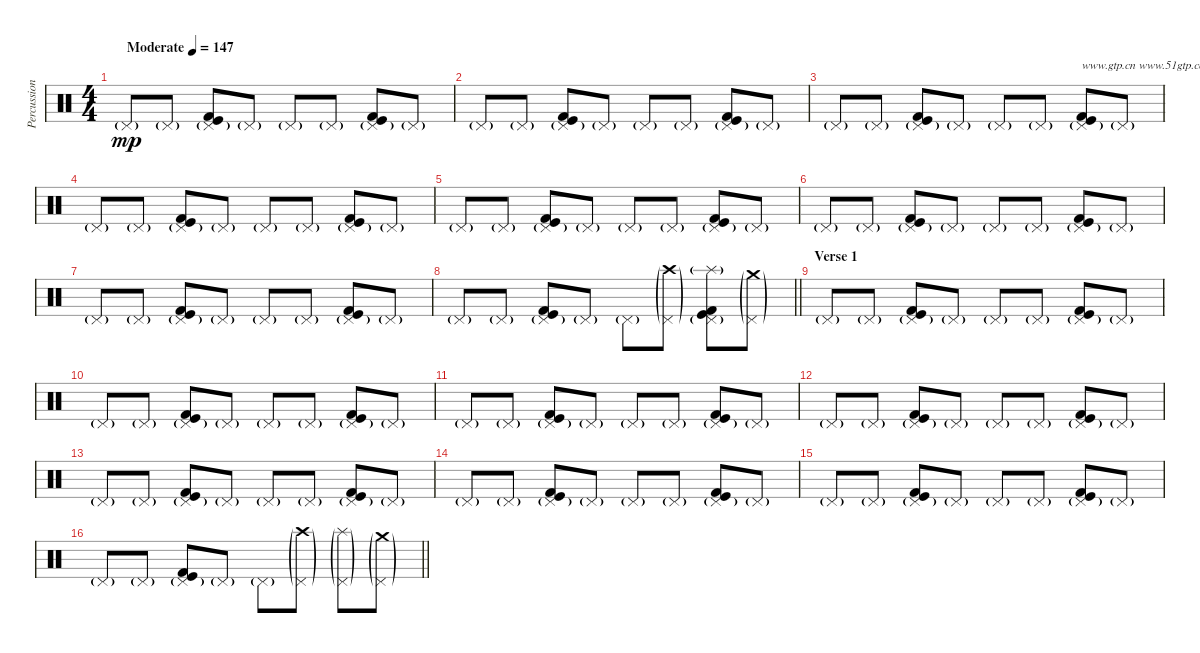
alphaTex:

\track ("Percussion" "Percussion") {instrument percussion}
\staff {score}
\articulation defaults
\ts (4 4)
\tempo (147 "Moderate")
\clef neutral
\ks c "Pedal Hi-Hat (hit)"{g}.8{dy mp} "Pedal Hi-Hat (hit)"{g}.8
("Pedal Hi-Hat (hit)"{g} "Kick (hit)" "Kick (hit) 2").8 "Pedal Hi-Hat (hit)"{g}.8 "Pedal Hi-Hat (hit)"{g}.8 "Pedal Hi-Hat (hit)"{g}.8 ("Pedal Hi-Hat (hit)"{g} "Kick (hit)" "Kick (hit) 2").8 "Pedal Hi-Hat (hit)"{g}.8 |
"Pedal Hi-Hat (hit)"{g}.8 "Pedal Hi-Hat (hit)"{g}.8 ("Pedal Hi-Hat (hit)"{g} "Kick (hit)" "Kick (hit) 2").8 "Pedal Hi-Hat (hit)"{g}.8 "Pedal Hi-Hat (hit)"{g}.8 "Pedal Hi-Hat (hit)"{g}.8 ("Pedal Hi-Hat (hit)"{g} "Kick (hit)" "Kick (hit) 2").8 "Pedal Hi-Hat (hit)"{g}.8 |
"Pedal Hi-Hat (hit)"{g}.8 "Pedal Hi-Hat (hit)"{g}.8 ("Pedal Hi-Hat (hit)"{g} "Kick (hit)" "Kick (hit) 2").8 "Pedal Hi-Hat (hit)"{g}.8 "Pedal Hi-Hat (hit)"{g}.8 "Pedal Hi-Hat (hit)"{g}.8 ("Pedal Hi-Hat (hit)"{g} "Kick (hit)" "Kick (hit) 2").8{txt "www.gtp.cn www.51gtp.com联合为您提供优秀的GTP!"} "Pedal Hi-Hat (hit)"{g}.8 |
"Pedal Hi-Hat (hit)"{g}.8 "Pedal Hi-Hat (hit)"{g}.8 ("Pedal Hi-Hat (hit)"{g} "Kick (hit)" "Kick (hit) 2").8 "Pedal Hi-Hat (hit)"{g}.8 "Pedal Hi-Hat (hit)"{g}.8 "Pedal Hi-Hat (hit)"{g}.8 ("Pedal Hi-Hat (hit)"{g} "Kick (hit)" "Kick (hit) 2").8 "Pedal Hi-Hat (hit)"{g}.8 |
"Pedal Hi-Hat (hit)"{g}.8 "Pedal Hi-Hat (hit)"{g}.8 ("Pedal Hi-Hat (hit)"{g} "Kick (hit)" "Kick (hit) 2").8 "Pedal Hi-Hat (hit)"{g}.8 "Pedal Hi-Hat (hit)"{g}.8 "Pedal Hi-Hat (hit)"{g}.8 ("Pedal Hi-Hat (hit)"{g} "Kick (hit)" "Kick (hit) 2").8 "Pedal Hi-Hat (hit)"{g}.8 |
"Pedal Hi-Hat (hit)"{g}.8 "Pedal Hi-Hat (hit)"{g}.8 ("Pedal Hi-Hat (hit)"{g} "Kick (hit)" "Kick (hit) 2").8 "Pedal Hi-Hat (hit)"{g}.8 "Pedal Hi-Hat (hit)"{g}.8 "Pedal Hi-Hat (hit)"{g}.8 ("Pedal Hi-Hat (hit)"{g} "Kick (hit)" "Kick (hit) 2").8 "Pedal Hi-Hat (hit)"{g}.8 |
"Pedal Hi-Hat (hit)"{g}.8 "Pedal Hi-Hat (hit)"{g}.8 ("Pedal Hi-Hat (hit)"{g} "Kick (hit)" "Kick (hit) 2").8 "Pedal Hi-Hat (hit)"{g}.8 "Pedal Hi-Hat (hit)"{g}.8 "Pedal Hi-Hat (hit)"{g}.8 ("Pedal Hi-Hat (hit)"{g} "Kick (hit)" "Kick (hit) 2").8 "Pedal Hi-Hat (hit)"{g}.8 |
\barLineRight lightlight "Pedal Hi-Hat (hit)"{g}.8 "Pedal Hi-Hat (hit)"{g}.8
("Pedal Hi-Hat (hit)"{g} "Kick (hit)" "Kick (hit) 2").8 "Pedal Hi-Hat (hit)"{g}.8 "Pedal Hi-Hat (hit)"{g}.8 ("Pedal Hi-Hat (hit)"{g} "Crash high (hit)"{g}).8 ("Pedal Hi-Hat (hit)"{g} "Splash (hit)"{g} "Kick (hit)" "Kick (hit) 2").8 ("Pedal Hi-Hat (hit)"{g} "Crash medium (hit)"{g}).8 |
\section ("" "Verse 1")
"Pedal Hi-Hat (hit)"{g}.8 "Pedal Hi-Hat (hit)"{g}.8 ("Pedal Hi-Hat (hit)"{g} "Kick (hit)" "Kick (hit) 2").8 "Pedal Hi-Hat (hit)"{g}.8 "Pedal Hi-Hat (hit)"{g}.8 "Pedal Hi-Hat (hit)"{g}.8 ("Pedal Hi-Hat (hit)"{g} "Kick (hit)" "Kick (hit) 2").8 "Pedal Hi-Hat (hit)"{g}.8 |
"Pedal Hi-Hat (hit)"{g}.8 "Pedal Hi-Hat (hit)"{g}.8 ("Pedal Hi-Hat (hit)"{g} "Kick (hit)" "Kick (hit) 2").8 "Pedal Hi-Hat (hit)"{g}.8 "Pedal Hi-Hat (hit)"{g}.8 "Pedal Hi-Hat (hit)"{g}.8 ("Pedal Hi-Hat (hit)"{g} "Kick (hit)" "Kick (hit) 2").8 "Pedal Hi-Hat (hit)"{g}.8 |
"Pedal Hi-Hat (hit)"{g}.8 "Pedal Hi-Hat (hit)"{g}.8 ("Pedal Hi-Hat (hit)"{g} "Kick (hit)" "Kick (hit) 2").8 "Pedal Hi-Hat (hit)"{g}.8 "Pedal Hi-Hat (hit)"{g}.8 "Pedal Hi-Hat (hit)"{g}.8 ("Pedal Hi-Hat (hit)"{g} "Kick (hit)" "Kick (hit) 2").8 "Pedal Hi-Hat (hit)"{g}.8 |
"Pedal Hi-Hat (hit)"{g}.8 "Pedal Hi-Hat (hit)"{g}.8 ("Pedal Hi-Hat (hit)"{g} "Kick (hit)" "Kick (hit) 2").8 "Pedal Hi-Hat (hit)"{g}.8 "Pedal Hi-Hat (hit)"{g}.8 "Pedal Hi-Hat (hit)"{g}.8 ("Pedal Hi-Hat (hit)"{g} "Kick (hit)" "Kick (hit) 2").8 "Pedal Hi-Hat (hit)"{g}.8 |
"Pedal Hi-Hat (hit)"{g}.8 "Pedal Hi-Hat (hit)"{g}.8 ("Pedal Hi-Hat (hit)"{g} "Kick (hit)" "Kick (hit) 2").8 "Pedal Hi-Hat (hit)"{g}.8 "Pedal Hi-Hat (hit)"{g}.8 "Pedal Hi-Hat (hit)"{g}.8 ("Pedal Hi-Hat (hit)"{g} "Kick (hit)" "Kick (hit) 2").8 "Pedal Hi-Hat (hit)"{g}.8 |
"Pedal Hi-Hat (hit)"{g}.8 "Pedal Hi-Hat (hit)"{g}.8 ("Pedal Hi-Hat (hit)"{g} "Kick (hit)" "Kick (hit) 2").8 "Pedal Hi-Hat (hit)"{g}.8 "Pedal Hi-Hat (hit)"{g}.8 "Pedal Hi-Hat (hit)"{g}.8 ("Pedal Hi-Hat (hit)"{g} "Kick (hit)" "Kick (hit) 2").8 "Pedal Hi-Hat (hit)"{g}.8 |
"Pedal Hi-Hat (hit)"{g}.8 "Pedal Hi-Hat (hit)"{g}.8 ("Pedal Hi-Hat (hit)"{g} "Kick (hit)" "Kick (hit) 2").8 "Pedal Hi-Hat (hit)"{g}.8 "Pedal Hi-Hat (hit)"{g}.8 "Pedal Hi-Hat (hit)"{g}.8 ("Pedal Hi-Hat (hit)"{g} "Kick (hit)" "Kick (hit) 2").8 "Pedal Hi-Hat (hit)"{g}.8 |
\barLineRight lightlight "Pedal Hi-Hat (hit)"{g}.8 "Pedal Hi-Hat (hit)"{g}.8
("Pedal Hi-Hat (hit)"{g} "Kick (hit)" "Kick (hit) 2").8 "Pedal Hi-Hat (hit)"{g}.8 "Pedal Hi-Hat (hit)"{g}.8 ("Pedal Hi-Hat (hit)"{g} "Crash high (hit)"{g}).8 ("Pedal Hi-Hat (hit)"{g} "Splash (hit)"{g}).8 ("Pedal Hi-Hat (hit)"{g} "Crash medium (hit)"{g}).8
